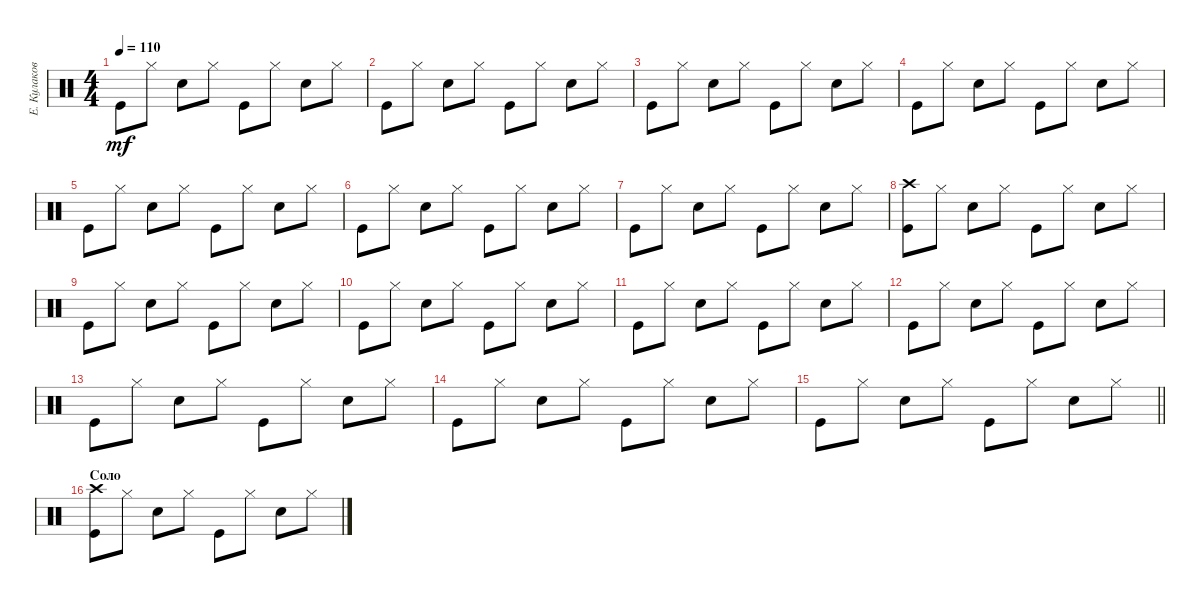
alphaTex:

\track ("Е. Кулаков" "Е. Кулаков") {instrument percussion}
\staff {score}
\articulation defaults
\ts (4 4)
\tempo 110
\clef neutral
\ks c "Kick (hit)".8{dy mf} "Hi-Hat (closed)".8 "Snare (hit) 2".8 "Hi-Hat (closed)".8 "Kick (hit)".8 "Hi-Hat (closed)".8 "Snare (hit) 2".8 "Hi-Hat (closed)".8
|
"Kick (hit)".8 "Hi-Hat (closed)".8 "Snare (hit) 2".8 "Hi-Hat (closed)".8 "Kick (hit)".8 "Hi-Hat (closed)".8 "Snare (hit) 2".8 "Hi-Hat (closed)".8 |
"Kick (hit)".8 "Hi-Hat (closed)".8 "Snare (hit) 2".8 "Hi-Hat (closed)".8 "Kick (hit)".8 "Hi-Hat (closed)".8 "Snare (hit) 2".8 "Hi-Hat (closed)".8 |
"Kick (hit)".8 "Hi-Hat (closed)".8 "Snare (hit) 2".8 "Hi-Hat (closed)".8 "Kick (hit)".8 "Hi-Hat (closed)".8 "Snare (hit) 2".8 "Hi-Hat (closed)".8 |
"Kick (hit)".8 "Hi-Hat (closed)".8 "Snare (hit) 2".8 "Hi-Hat (closed)".8 "Kick (hit)".8 "Hi-Hat (closed)".8 "Snare (hit) 2".8 "Hi-Hat (closed)".8 |
"Kick (hit)".8 "Hi-Hat (closed)".8 "Snare (hit) 2".8 "Hi-Hat (closed)".8 "Kick (hit)".8 "Hi-Hat (closed)".8 "Snare (hit) 2".8 "Hi-Hat (closed)".8 |
"Kick (hit)".8 "Hi-Hat (closed)".8 "Snare (hit) 2".8 "Hi-Hat (closed)".8 "Kick (hit)".8 "Hi-Hat (closed)".8 "Snare (hit) 2".8 "Hi-Hat (closed)".8 |
("Kick (hit)" "Crash high (hit)").8 "Hi-Hat (closed)".8 "Snare (hit) 2".8 "Hi-Hat (closed)".8 "Kick (hit)".8 "Hi-Hat (closed)".8 "Snare (hit) 2".8 "Hi-Hat (closed)".8 |
"Kick (hit)".8 "Hi-Hat (closed)".8 "Snare (hit) 2".8 "Hi-Hat (closed)".8 "Kick (hit)".8 "Hi-Hat (closed)".8 "Snare (hit) 2".8 "Hi-Hat (closed)".8 |
"Kick (hit)".8 "Hi-Hat (closed)".8 "Snare (hit) 2".8 "Hi-Hat (closed)".8 "Kick (hit)".8 "Hi-Hat (closed)".8 "Snare (hit) 2".8 "Hi-Hat (closed)".8 |
"Kick (hit)".8 "Hi-Hat (closed)".8 "Snare (hit) 2".8 "Hi-Hat (closed)".8 "Kick (hit)".8 "Hi-Hat (closed)".8 "Snare (hit) 2".8 "Hi-Hat (closed)".8 |
"Kick (hit)".8 "Hi-Hat (closed)".8 "Snare (hit) 2".8 "Hi-Hat (closed)".8 "Kick (hit)".8 "Hi-Hat (closed)".8 "Snare (hit) 2".8 "Hi-Hat (closed)".8 |
"Kick (hit)".8 "Hi-Hat (closed)".8 "Snare (hit) 2".8 "Hi-Hat (closed)".8 "Kick (hit)".8 "Hi-Hat (closed)".8 "Snare (hit) 2".8 "Hi-Hat (closed)".8 |
"Kick (hit)".8 "Hi-Hat (closed)".8 "Snare (hit) 2".8 "Hi-Hat (closed)".8 "Kick (hit)".8 "Hi-Hat (closed)".8 "Snare (hit) 2".8 "Hi-Hat (closed)".8 |
\barLineRight lightlight "Kick (hit)".8 "Hi-Hat (closed)".8 "Snare (hit) 2".8 "Hi-Hat (closed)".8 "Kick (hit)".8 "Hi-Hat (closed)".8 "Snare (hit) 2".8 "Hi-Hat (closed)".8
|
\section ("" "Соло")
("Kick (hit)" "Crash high (hit)").8 "Hi-Hat (closed)".8 "Snare (hit) 2".8 "Hi-Hat (closed)".8 "Kick (hit)".8 "Hi-Hat (closed)".8 "Snare (hit) 2".8 "Hi-Hat (closed)".8
